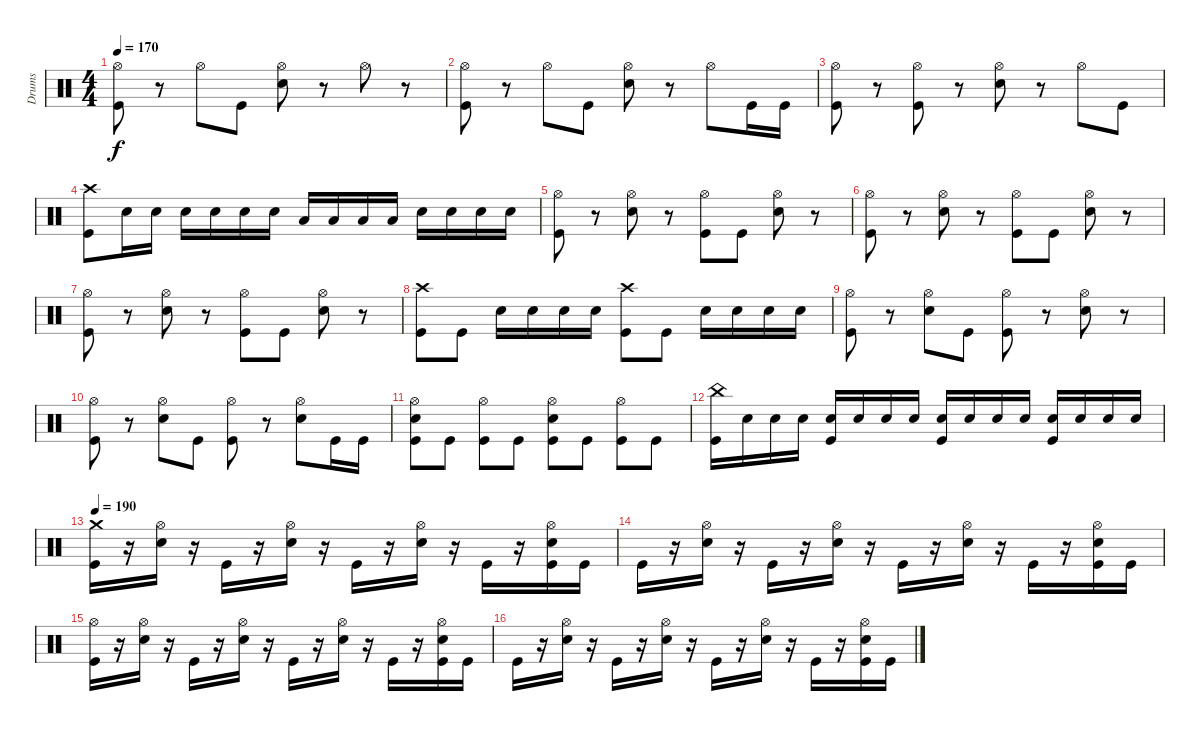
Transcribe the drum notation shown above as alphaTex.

\track ("Drums" "Drums") {instrument percussion}
\staff {score}
\articulation defaults
\ts (4 4)
\tempo 170
\clef neutral
\ks c
("Hi-Hat (open)" "Kick (hit)").8{dy f} r.8 "Hi-Hat (open)".8 "Kick (hit)".8 ("Hi-Hat (open)" "Electric Snare (hit)").8 r.8 "Hi-Hat (open)".8 r.8 |
("Hi-Hat (open)" "Kick (hit)").8 r.8 "Hi-Hat (open)".8 "Kick (hit)".8 ("Hi-Hat (open)" "Electric Snare (hit)").8 r.8 "Hi-Hat (open)".8 "Kick (hit)".16 "Kick (hit)".16 |
("Hi-Hat (open)" "Kick (hit)").8 r.8 ("Hi-Hat (open)" "Kick (hit)").8 r.8 ("Hi-Hat (open)" "Electric Snare (hit)").8 r.8 "Hi-Hat (open)".8 "Kick (hit)".8 |
("Crash high (hit)" "Kick (hit)").8 "Electric Snare (hit)".16 "Electric Snare (hit)".16 "Electric Snare (hit)".16 "Electric Snare (hit)".16 "Electric Snare (hit)".16 "Electric Snare (hit)".16 "Low Tom (hit)".16 "Low Tom (hit)".16 "Low Tom (hit)".16 "Low Tom (hit)".16 "Electric Snare (hit)".16 "Electric Snare (hit)".16 "Electric Snare (hit)".16 "Electric Snare (hit)".16 |
("Hi-Hat (open)" "Kick (hit)").8 r.8 ("Electric Snare (hit)" "Hi-Hat (open)").8 r.8 ("Hi-Hat (open)" "Kick (hit)").8 "Kick (hit)".8 ("Hi-Hat (open)" "Electric Snare (hit)").8 r.8 |
("Hi-Hat (open)" "Kick (hit)").8 r.8 ("Electric Snare (hit)" "Hi-Hat (open)").8 r.8 ("Hi-Hat (open)" "Kick (hit)").8 "Kick (hit)".8 ("Hi-Hat (open)" "Electric Snare (hit)").8 r.8 |
("Hi-Hat (open)" "Kick (hit)").8 r.8 ("Electric Snare (hit)" "Hi-Hat (open)").8 r.8 ("Hi-Hat (open)" "Kick (hit)").8 "Kick (hit)".8 ("Hi-Hat (open)" "Electric Snare (hit)").8 r.8 |
("Crash high (hit)" "Kick (hit)").8 "Kick (hit)".8 "Electric Snare (hit)".16 "Electric Snare (hit)".16 "Electric Snare (hit)".16 "Electric Snare (hit)".16 ("Crash high (hit)" "Kick (hit)").8 "Kick (hit)".8 "Electric Snare (hit)".16 "Electric Snare (hit)".16 "Electric Snare (hit)".16 "Electric Snare (hit)".16 |
("Hi-Hat (open)" "Kick (hit)").8 r.8 ("Electric Snare (hit)" "Hi-Hat (open)").8 "Kick (hit)".8 ("Hi-Hat (open)" "Kick (hit)").8 r.8 ("Hi-Hat (open)" "Electric Snare (hit)").8 r.8 |
("Hi-Hat (open)" "Kick (hit)").8 r.8 ("Electric Snare (hit)" "Hi-Hat (open)").8 "Kick (hit)".8 ("Hi-Hat (open)" "Kick (hit)").8 r.8 ("Hi-Hat (open)" "Electric Snare (hit)").8 "Kick (hit)".16 "Kick (hit)".16 |
("Hi-Hat (open)" "Electric Snare (hit)" "Kick (hit)").8 "Kick (hit)".8 ("Hi-Hat (open)" "Kick (hit)").8 "Kick (hit)".8 ("Hi-Hat (open)" "Electric Snare (hit)" "Kick (hit)").8 "Kick (hit)".8 ("Hi-Hat (open)" "Kick (hit)").8 "Kick (hit)".8 |
("China (hit)" "Kick (hit)").16 "Electric Snare (hit)".16{volume 5} "Electric Snare (hit)".16{volume 13} "Electric Snare (hit)".16 ("Electric Snare (hit)" "Kick (hit)").16 "Electric Snare (hit)".16 "Electric Snare (hit)".16 "Electric Snare (hit)".16 ("Electric Snare (hit)" "Kick (hit)").16 "Electric Snare (hit)".16 "Electric Snare (hit)".16 "Electric Snare (hit)".16 ("Electric Snare (hit)" "Kick (hit)").16 "Electric Snare (hit)".16 "Electric Snare (hit)".16 "Electric Snare (hit)".16 |
\tempo 190
("Crash medium (hit)" "Kick (hit)").16{volume 13} r.16 ("Hi-Hat (open)" "Electric Snare (hit)").16 r.16 "Kick (hit)".16{volume 13} r.16 ("Hi-Hat (open)" "Electric Snare (hit)").16 r.16 "Kick (hit)".16{volume 13} r.16 ("Hi-Hat (open)" "Electric Snare (hit)").16 r.16 "Kick (hit)".16{volume 13} r.16 ("Hi-Hat (open)" "Electric Snare (hit)" "Kick (hit)").16 "Kick (hit)".16 |
"Kick (hit)".16{volume 13} r.16 ("Hi-Hat (open)" "Electric Snare (hit)").16 r.16 "Kick (hit)".16{volume 13} r.16 ("Hi-Hat (open)" "Electric Snare (hit)").16 r.16 "Kick (hit)".16{volume 13} r.16 ("Hi-Hat (open)" "Electric Snare (hit)").16 r.16 "Kick (hit)".16{volume 13} r.16 ("Hi-Hat (open)" "Electric Snare (hit)" "Kick (hit)").16 "Kick (hit)".16 |
("Hi-Hat (open)" "Kick (hit)").16{volume 13} r.16 ("Hi-Hat (open)" "Electric Snare (hit)").16 r.16 "Kick (hit)".16{volume 13} r.16 ("Hi-Hat (open)" "Electric Snare (hit)").16 r.16 "Kick (hit)".16{volume 13} r.16 ("Hi-Hat (open)" "Electric Snare (hit)").16 r.16 "Kick (hit)".16{volume 13} r.16 ("Hi-Hat (open)" "Electric Snare (hit)" "Kick (hit)").16 "Kick (hit)".16 |
"Kick (hit)".16{volume 13} r.16 ("Hi-Hat (open)" "Electric Snare (hit)").16 r.16 "Kick (hit)".16{volume 13} r.16 ("Hi-Hat (open)" "Electric Snare (hit)").16 r.16 "Kick (hit)".16{volume 13} r.16 ("Hi-Hat (open)" "Electric Snare (hit)").16 r.16 "Kick (hit)".16{volume 13} r.16 ("Hi-Hat (open)" "Electric Snare (hit)" "Kick (hit)").16 "Kick (hit)".16
